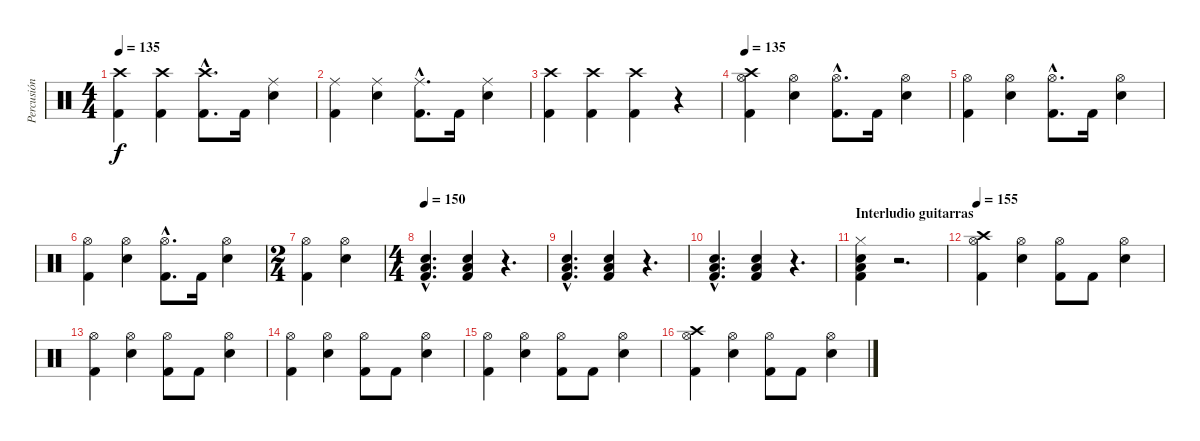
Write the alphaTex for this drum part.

\track ("Percusión" "Percusión") {instrument percussion}
\staff {score}
\articulation defaults
\ts (4 4)
\tempo 135
\clef neutral
\ks c
("Crash high (hit)" "Kick (hit) 2").4{dy f} ("Crash high (hit)" "Kick (hit) 2").4 ("Crash high (hit)"{hac} "Kick (hit) 2"{hac}).8{d} "Kick (hit) 2".16 ("Ride (middle)" "Snare (hit) 2").4 |
("Ride (middle)" "Kick (hit) 2").4 ("Ride (middle)" "Snare (hit) 2").4 ("Ride (middle)"{hac} "Kick (hit) 2"{hac}).8{d} "Kick (hit) 2".16 ("Ride (middle)" "Snare (hit) 2").4 |
("Crash high (hit)" "Kick (hit) 2").4 ("Crash high (hit)" "Kick (hit) 2").4 ("Crash high (hit)" "Kick (hit) 2").4 r.4 |
\tempo 135
("Crash high (hit)" "Hi-Hat (open)" "Kick (hit) 2").4 ("Hi-Hat (open)" "Snare (hit) 2").4 ("Hi-Hat (open)"{hac} "Kick (hit) 2"{hac}).8{d} "Kick (hit) 2".16 ("Hi-Hat (open)" "Snare (hit) 2").4 |
("Hi-Hat (open)" "Kick (hit) 2").4 ("Hi-Hat (open)" "Snare (hit) 2").4 ("Hi-Hat (open)"{hac} "Kick (hit) 2"{hac}).8{d} "Kick (hit) 2".16 ("Hi-Hat (open)" "Snare (hit) 2").4 |
("Hi-Hat (open)" "Kick (hit) 2").4 ("Hi-Hat (open)" "Snare (hit) 2").4 ("Hi-Hat (open)"{hac} "Kick (hit) 2"{hac}).8{d} "Kick (hit) 2".16 ("Hi-Hat (open)" "Snare (hit) 2").4 |
\ts (2 4)
("Hi-Hat (open)" "Kick (hit) 2").4 ("Hi-Hat (open)" "Snare (hit) 2").4 |
\ts (4 4)
\tempo 150
("Snare (hit) 2"{hac} "Low Floor Tom (hit)"{hac} "Kick (hit) 2"{hac}).4{d} ("Snare (hit) 2" "Low Floor Tom (hit)" "Kick (hit) 2").4 r.4{d} |
("Snare (hit) 2"{hac} "Low Floor Tom (hit)"{hac} "Kick (hit) 2"{hac}).4{d} ("Snare (hit) 2" "Low Floor Tom (hit)" "Kick (hit) 2").4 r.4{d} |
("Snare (hit) 2"{hac} "Low Floor Tom (hit)"{hac} "Kick (hit) 2"{hac}).4{d} ("Snare (hit) 2" "Low Floor Tom (hit)" "Kick (hit) 2").4 r.4{d} |
\section ("" "Interludio guitarras")
("Hi-Hat (closed)" "Snare (hit) 2" "Low Floor Tom (hit)" "Kick (hit) 2").4 r.2{d} |
\tempo 155
("Crash high (hit)" "Hi-Hat (open)" "Kick (hit) 2").4 ("Hi-Hat (open)" "Snare (hit) 2").4 ("Hi-Hat (open)" "Kick (hit) 2").8 "Kick (hit) 2".8 ("Hi-Hat (open)" "Snare (hit) 2").4 |
("Hi-Hat (open)" "Kick (hit) 2").4 ("Hi-Hat (open)" "Snare (hit) 2").4 ("Hi-Hat (open)" "Kick (hit) 2").8 "Kick (hit) 2".8 ("Hi-Hat (open)" "Snare (hit) 2").4 |
("Hi-Hat (open)" "Kick (hit) 2").4 ("Hi-Hat (open)" "Snare (hit) 2").4 ("Hi-Hat (open)" "Kick (hit) 2").8 "Kick (hit) 2".8 ("Hi-Hat (open)" "Snare (hit) 2").4 |
("Hi-Hat (open)" "Kick (hit) 2").4 ("Hi-Hat (open)" "Snare (hit) 2").4 ("Hi-Hat (open)" "Kick (hit) 2").8 "Kick (hit) 2".8 ("Hi-Hat (open)" "Snare (hit) 2").4 |
("Crash high (hit)" "Hi-Hat (open)" "Kick (hit) 2").4 ("Hi-Hat (open)" "Snare (hit) 2").4 ("Hi-Hat (open)" "Kick (hit) 2").8 "Kick (hit) 2".8 ("Hi-Hat (open)" "Snare (hit) 2").4
